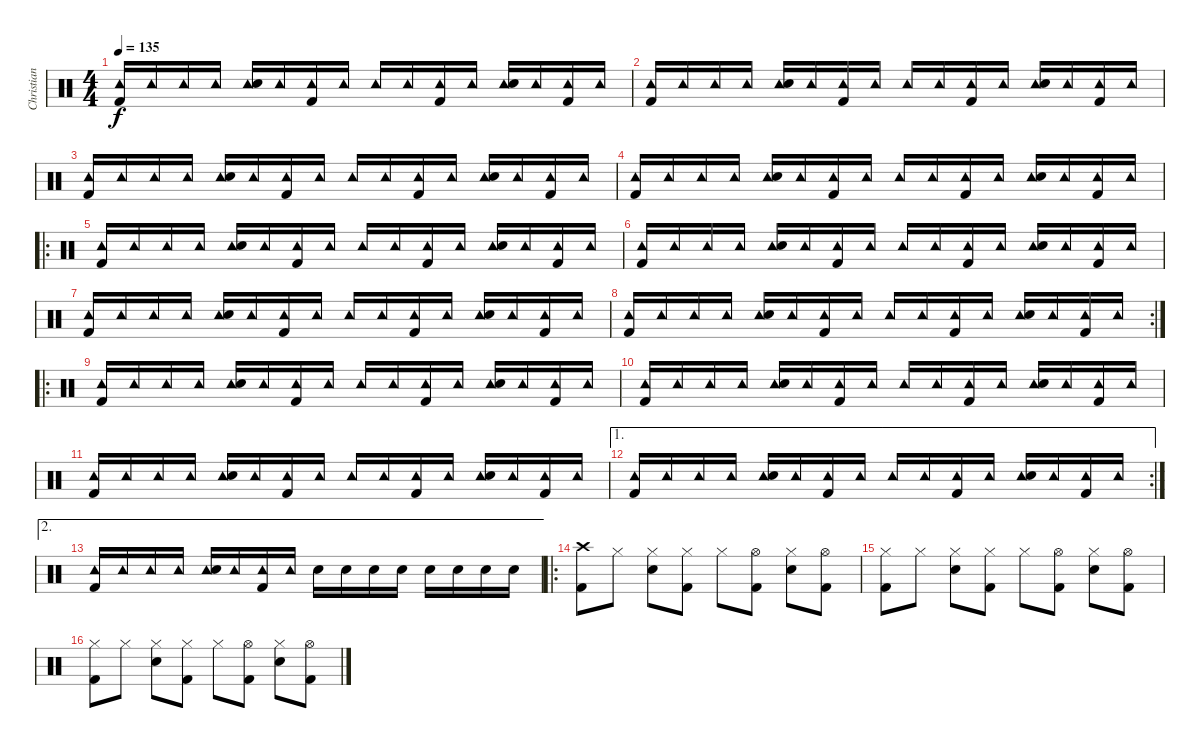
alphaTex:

\track ("Christian" "Christian") {instrument percussion}
\staff {score}
\articulation defaults
\ts (4 4)
\tempo 135
\clef neutral
\ks c
("Tambourine (hit)" "Kick (hit) 2").16{dy f} "Tambourine (hit)".16 "Tambourine (hit)".16 "Tambourine (hit)".16 ("Tambourine (hit)" "Snare (hit) 2").16 "Tambourine (hit)".16 ("Tambourine (hit)" "Kick (hit) 2").16 "Tambourine (hit)".16 "Tambourine (hit)".16 "Tambourine (hit)".16 ("Tambourine (hit)" "Kick (hit) 2").16 "Tambourine (hit)".16 ("Tambourine (hit)" "Snare (hit) 2").16 "Tambourine (hit)".16 ("Tambourine (hit)" "Kick (hit) 2").16 "Tambourine (hit)".16 |
("Tambourine (hit)" "Kick (hit) 2").16 "Tambourine (hit)".16 "Tambourine (hit)".16 "Tambourine (hit)".16 ("Tambourine (hit)" "Snare (hit) 2").16 "Tambourine (hit)".16 ("Tambourine (hit)" "Kick (hit) 2").16 "Tambourine (hit)".16 "Tambourine (hit)".16 "Tambourine (hit)".16 ("Tambourine (hit)" "Kick (hit) 2").16 "Tambourine (hit)".16 ("Tambourine (hit)" "Snare (hit) 2").16 "Tambourine (hit)".16 ("Tambourine (hit)" "Kick (hit) 2").16 "Tambourine (hit)".16 |
("Tambourine (hit)" "Kick (hit) 2").16 "Tambourine (hit)".16 "Tambourine (hit)".16 "Tambourine (hit)".16 ("Tambourine (hit)" "Snare (hit) 2").16 "Tambourine (hit)".16 ("Tambourine (hit)" "Kick (hit) 2").16 "Tambourine (hit)".16 "Tambourine (hit)".16 "Tambourine (hit)".16 ("Tambourine (hit)" "Kick (hit) 2").16 "Tambourine (hit)".16 ("Tambourine (hit)" "Snare (hit) 2").16 "Tambourine (hit)".16 ("Tambourine (hit)" "Kick (hit) 2").16 "Tambourine (hit)".16 |
("Tambourine (hit)" "Kick (hit) 2").16 "Tambourine (hit)".16 "Tambourine (hit)".16 "Tambourine (hit)".16 ("Tambourine (hit)" "Snare (hit) 2").16 "Tambourine (hit)".16 ("Tambourine (hit)" "Kick (hit) 2").16 "Tambourine (hit)".16 "Tambourine (hit)".16 "Tambourine (hit)".16 ("Tambourine (hit)" "Kick (hit) 2").16 "Tambourine (hit)".16 ("Tambourine (hit)" "Snare (hit) 2").16 "Tambourine (hit)".16 ("Tambourine (hit)" "Kick (hit) 2").16 "Tambourine (hit)".16 |
\ro
("Tambourine (hit)" "Kick (hit) 2").16 "Tambourine (hit)".16 "Tambourine (hit)".16 "Tambourine (hit)".16 ("Tambourine (hit)" "Snare (hit) 2").16 "Tambourine (hit)".16 ("Tambourine (hit)" "Kick (hit) 2").16 "Tambourine (hit)".16 "Tambourine (hit)".16 "Tambourine (hit)".16 ("Tambourine (hit)" "Kick (hit) 2").16 "Tambourine (hit)".16 ("Tambourine (hit)" "Snare (hit) 2").16 "Tambourine (hit)".16 ("Tambourine (hit)" "Kick (hit) 2").16 "Tambourine (hit)".16 |
("Tambourine (hit)" "Kick (hit) 2").16 "Tambourine (hit)".16 "Tambourine (hit)".16 "Tambourine (hit)".16 ("Tambourine (hit)" "Snare (hit) 2").16 "Tambourine (hit)".16 ("Tambourine (hit)" "Kick (hit) 2").16 "Tambourine (hit)".16 "Tambourine (hit)".16 "Tambourine (hit)".16 ("Tambourine (hit)" "Kick (hit) 2").16 "Tambourine (hit)".16 ("Tambourine (hit)" "Snare (hit) 2").16 "Tambourine (hit)".16 ("Tambourine (hit)" "Kick (hit) 2").16 "Tambourine (hit)".16 |
("Tambourine (hit)" "Kick (hit) 2").16 "Tambourine (hit)".16 "Tambourine (hit)".16 "Tambourine (hit)".16 ("Tambourine (hit)" "Snare (hit) 2").16 "Tambourine (hit)".16 ("Tambourine (hit)" "Kick (hit) 2").16 "Tambourine (hit)".16 "Tambourine (hit)".16 "Tambourine (hit)".16 ("Tambourine (hit)" "Kick (hit) 2").16 "Tambourine (hit)".16 ("Tambourine (hit)" "Snare (hit) 2").16 "Tambourine (hit)".16 ("Tambourine (hit)" "Kick (hit) 2").16 "Tambourine (hit)".16 |
\rc 2
("Tambourine (hit)" "Kick (hit) 2").16 "Tambourine (hit)".16 "Tambourine (hit)".16 "Tambourine (hit)".16 ("Tambourine (hit)" "Snare (hit) 2").16 "Tambourine (hit)".16 ("Tambourine (hit)" "Kick (hit) 2").16 "Tambourine (hit)".16 "Tambourine (hit)".16 "Tambourine (hit)".16 ("Tambourine (hit)" "Kick (hit) 2").16 "Tambourine (hit)".16 ("Tambourine (hit)" "Snare (hit) 2").16 "Tambourine (hit)".16 ("Tambourine (hit)" "Kick (hit) 2").16 "Tambourine (hit)".16 |
\ro
("Tambourine (hit)" "Kick (hit) 2").16 "Tambourine (hit)".16 "Tambourine (hit)".16 "Tambourine (hit)".16 ("Tambourine (hit)" "Snare (hit) 2").16 "Tambourine (hit)".16 ("Tambourine (hit)" "Kick (hit) 2").16 "Tambourine (hit)".16 "Tambourine (hit)".16 "Tambourine (hit)".16 ("Tambourine (hit)" "Kick (hit) 2").16 "Tambourine (hit)".16 ("Tambourine (hit)" "Snare (hit) 2").16 "Tambourine (hit)".16 ("Tambourine (hit)" "Kick (hit) 2").16 "Tambourine (hit)".16 |
("Tambourine (hit)" "Kick (hit) 2").16 "Tambourine (hit)".16 "Tambourine (hit)".16 "Tambourine (hit)".16 ("Tambourine (hit)" "Snare (hit) 2").16 "Tambourine (hit)".16 ("Tambourine (hit)" "Kick (hit) 2").16 "Tambourine (hit)".16 "Tambourine (hit)".16 "Tambourine (hit)".16 ("Tambourine (hit)" "Kick (hit) 2").16 "Tambourine (hit)".16 ("Tambourine (hit)" "Snare (hit) 2").16 "Tambourine (hit)".16 ("Tambourine (hit)" "Kick (hit) 2").16 "Tambourine (hit)".16 |
("Tambourine (hit)" "Kick (hit) 2").16 "Tambourine (hit)".16 "Tambourine (hit)".16 "Tambourine (hit)".16 ("Tambourine (hit)" "Snare (hit) 2").16 "Tambourine (hit)".16 ("Tambourine (hit)" "Kick (hit) 2").16 "Tambourine (hit)".16 "Tambourine (hit)".16 "Tambourine (hit)".16 ("Tambourine (hit)" "Kick (hit) 2").16 "Tambourine (hit)".16 ("Tambourine (hit)" "Snare (hit) 2").16 "Tambourine (hit)".16 ("Tambourine (hit)" "Kick (hit) 2").16 "Tambourine (hit)".16 |
\ae 1
\rc 2
("Tambourine (hit)" "Kick (hit) 2").16 "Tambourine (hit)".16 "Tambourine (hit)".16 "Tambourine (hit)".16 ("Tambourine (hit)" "Snare (hit) 2").16 "Tambourine (hit)".16 ("Tambourine (hit)" "Kick (hit) 2").16 "Tambourine (hit)".16 "Tambourine (hit)".16 "Tambourine (hit)".16 ("Tambourine (hit)" "Kick (hit) 2").16 "Tambourine (hit)".16 ("Tambourine (hit)" "Snare (hit) 2").16 "Tambourine (hit)".16 ("Tambourine (hit)" "Kick (hit) 2").16 "Tambourine (hit)".16 |
\ae 2
("Tambourine (hit)" "Kick (hit) 2").16 "Tambourine (hit)".16 "Tambourine (hit)".16 "Tambourine (hit)".16 ("Tambourine (hit)" "Snare (hit) 2").16 "Tambourine (hit)".16 ("Tambourine (hit)" "Kick (hit) 2").16 "Tambourine (hit)".16 "Snare (hit) 2".16 "Snare (hit) 2".16 "Snare (hit) 2".16 "Snare (hit) 2".16 "Snare (hit) 2".16 "Snare (hit) 2".16 "Snare (hit) 2".16 "Snare (hit) 2".16 |
\ro
("Crash high (hit)" "Kick (hit) 2").8 "Hi-Hat (closed)".8 ("Hi-Hat (closed)" "Snare (hit) 2").8 ("Hi-Hat (closed)" "Kick (hit) 2").8 "Hi-Hat (closed)".8 ("Hi-Hat (open)" "Kick (hit) 2").8 ("Hi-Hat (closed)" "Snare (hit) 2").8 ("Hi-Hat (open)" "Kick (hit) 2").8 |
("Hi-Hat (closed)" "Kick (hit) 2").8 "Hi-Hat (closed)".8 ("Hi-Hat (closed)" "Snare (hit) 2").8 ("Hi-Hat (closed)" "Kick (hit) 2").8 "Hi-Hat (closed)".8 ("Hi-Hat (open)" "Kick (hit) 2").8 ("Hi-Hat (closed)" "Snare (hit) 2").8 ("Hi-Hat (open)" "Kick (hit) 2").8 |
("Hi-Hat (closed)" "Kick (hit) 2").8 "Hi-Hat (closed)".8 ("Hi-Hat (closed)" "Snare (hit) 2").8 ("Hi-Hat (closed)" "Kick (hit) 2").8 "Hi-Hat (closed)".8 ("Hi-Hat (open)" "Kick (hit) 2").8 ("Hi-Hat (closed)" "Snare (hit) 2").8 ("Hi-Hat (open)" "Kick (hit) 2").8
